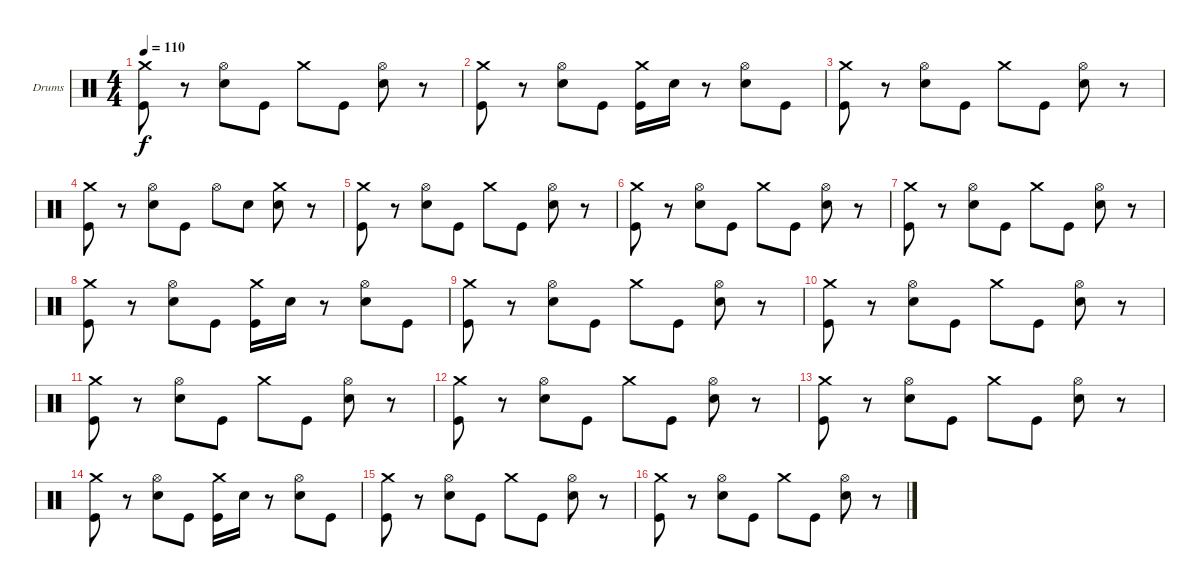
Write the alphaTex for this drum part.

\bracketExtendMode groupsimilarinstruments
\firstSystemTrackNameOrientation horizontal
\otherSystemsTrackNameOrientation horizontal
\track ("Drumkit" "Drums") {instrument percussion}
\staff {score}
\articulation defaults
\ts (4 4)
\tempo 110
\clef neutral
\ks c
("Crash medium (hit)" "Kick (hit)").8{dy f} r.8 ("Hi-Hat (open)" "Snare (hit) 2").8 "Kick (hit)".8 "Crash medium (hit)".8 "Kick (hit)".8 ("Hi-Hat (open)" "Snare (hit) 2").8 r.8 |
("Crash medium (hit)" "Kick (hit)").8 r.8 ("Hi-Hat (open)" "Snare (hit) 2").8 "Kick (hit)".8 ("Crash medium (hit)" "Kick (hit)").16 "Snare (hit) 2".16 r.8 ("Hi-Hat (open)" "Snare (hit) 2").8 "Kick (hit)".8 |
("Crash medium (hit)" "Kick (hit)").8 r.8 ("Hi-Hat (open)" "Snare (hit) 2").8 "Kick (hit)".8 "Crash medium (hit)".8 "Kick (hit)".8 ("Hi-Hat (open)" "Snare (hit) 2").8 r.8 |
("Crash medium (hit)" "Kick (hit)").8 r.8 ("Hi-Hat (open)" "Snare (hit) 2").8 "Kick (hit)".8 "Hi-Hat (open)".8 "Snare (hit) 2".8 ("Crash medium (hit)" "Snare (hit) 2").8 r.8 |
("Crash medium (hit)" "Kick (hit)").8 r.8 ("Hi-Hat (open)" "Snare (hit) 2").8 "Kick (hit)".8 "Crash medium (hit)".8 "Kick (hit)".8 ("Hi-Hat (open)" "Snare (hit) 2").8 r.8 |
("Crash medium (hit)" "Kick (hit)").8 r.8 ("Hi-Hat (open)" "Snare (hit) 2").8 "Kick (hit)".8 "Crash medium (hit)".8 "Kick (hit)".8 ("Hi-Hat (open)" "Snare (hit) 2").8 r.8 |
("Crash medium (hit)" "Kick (hit)").8 r.8 ("Hi-Hat (open)" "Snare (hit) 2").8 "Kick (hit)".8 "Crash medium (hit)".8 "Kick (hit)".8 ("Hi-Hat (open)" "Snare (hit) 2").8 r.8 |
("Crash medium (hit)" "Kick (hit)").8 r.8 ("Hi-Hat (open)" "Snare (hit) 2").8 "Kick (hit)".8 ("Crash medium (hit)" "Kick (hit)").16 "Snare (hit) 2".16 r.8 ("Hi-Hat (open)" "Snare (hit) 2").8 "Kick (hit)".8 |
("Crash medium (hit)" "Kick (hit)").8 r.8 ("Hi-Hat (open)" "Snare (hit) 2").8 "Kick (hit)".8 "Crash medium (hit)".8 "Kick (hit)".8 ("Hi-Hat (open)" "Snare (hit) 2").8 r.8 |
("Crash medium (hit)" "Kick (hit)").8 r.8 ("Hi-Hat (open)" "Snare (hit) 2").8 "Kick (hit)".8 "Crash medium (hit)".8 "Kick (hit)".8 ("Hi-Hat (open)" "Snare (hit) 2").8 r.8 |
("Crash medium (hit)" "Kick (hit)").8 r.8 ("Hi-Hat (open)" "Snare (hit) 2").8 "Kick (hit)".8 "Crash medium (hit)".8 "Kick (hit)".8 ("Hi-Hat (open)" "Snare (hit) 2").8 r.8 |
("Crash medium (hit)" "Kick (hit)").8 r.8 ("Hi-Hat (open)" "Snare (hit) 2").8 "Kick (hit)".8 "Crash medium (hit)".8 "Kick (hit)".8 ("Hi-Hat (open)" "Snare (hit) 2").8 r.8 |
("Crash medium (hit)" "Kick (hit)").8 r.8 ("Hi-Hat (open)" "Snare (hit) 2").8 "Kick (hit)".8 "Crash medium (hit)".8 "Kick (hit)".8 ("Hi-Hat (open)" "Snare (hit) 2").8 r.8 |
("Crash medium (hit)" "Kick (hit)").8 r.8 ("Hi-Hat (open)" "Snare (hit) 2").8 "Kick (hit)".8 ("Crash medium (hit)" "Kick (hit)").16 "Snare (hit) 2".16 r.8 ("Hi-Hat (open)" "Snare (hit) 2").8 "Kick (hit)".8 |
("Crash medium (hit)" "Kick (hit)").8 r.8 ("Hi-Hat (open)" "Snare (hit) 2").8 "Kick (hit)".8 "Crash medium (hit)".8 "Kick (hit)".8 ("Hi-Hat (open)" "Snare (hit) 2").8 r.8 |
("Crash medium (hit)" "Kick (hit)").8 r.8 ("Hi-Hat (open)" "Snare (hit) 2").8 "Kick (hit)".8 "Crash medium (hit)".8 "Kick (hit)".8 ("Hi-Hat (open)" "Snare (hit) 2").8 r.8
